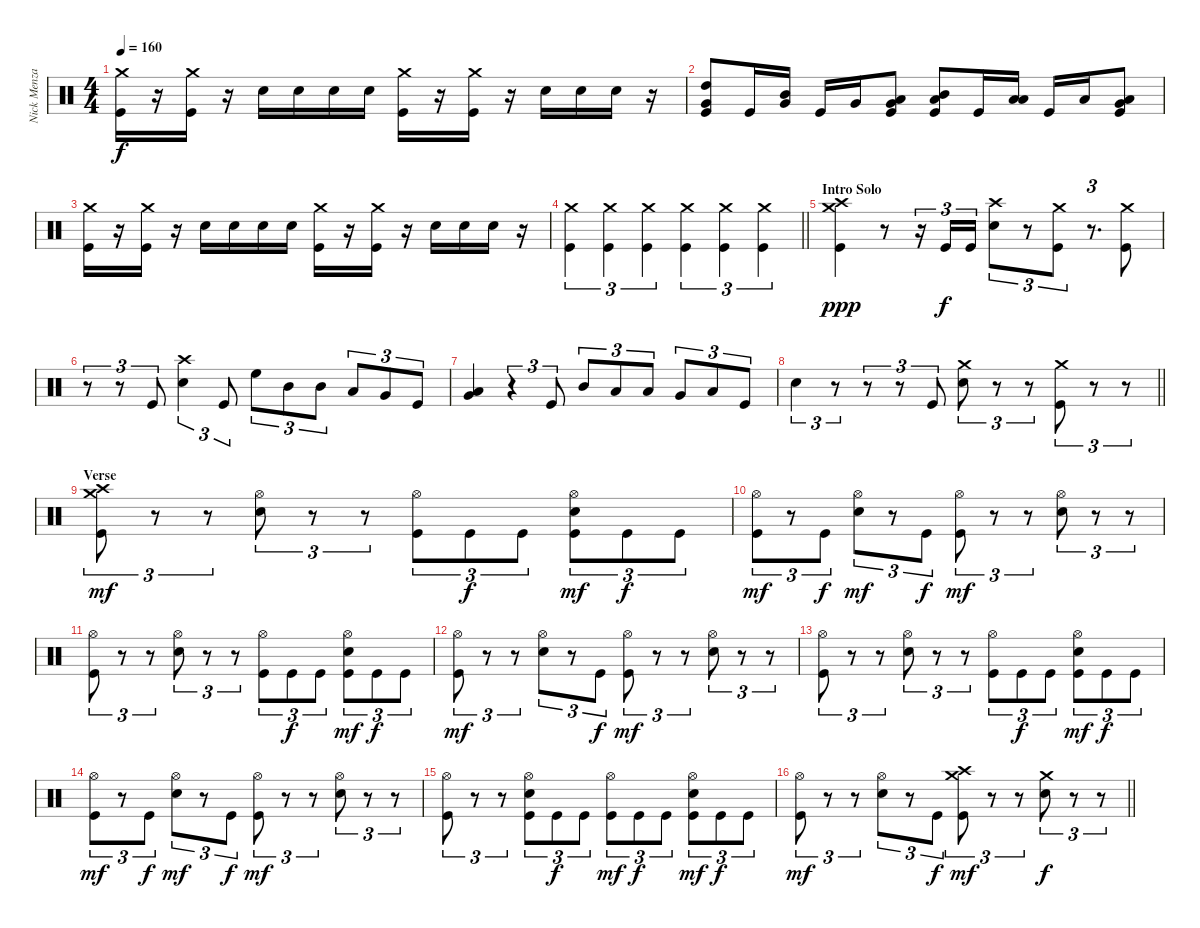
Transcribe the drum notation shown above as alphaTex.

\track ("Nick Menza" "Nick Menza") {instrument percussion}
\staff {score}
\articulation defaults
\ts (4 4)
\tempo 160
\clef neutral
\ks c
("Crash medium (hit)" "Kick (hit)").16{dy f} r.16 ("Crash medium (hit)" "Kick (hit)").16 r.16 "Snare (hit) 2".16 "Snare (hit) 2".16 "Snare (hit) 2".16 "Snare (hit) 2".16 ("Crash medium (hit)" "Kick (hit)").16 r.16 ("Crash medium (hit)" "Kick (hit)").16 r.16 "Snare (hit) 2".16 "Snare (hit) 2".16 "Snare (hit) 2".16 r.16 |
("High Tom (hit)" "Very Low Tom (hit)" "Kick (hit)").8 "Kick (hit)".16 ("Mid Tom (hit)" "Very Low Tom (hit)").16 "Kick (hit)".16 "Very Low Tom (hit)".16 ("Low Tom (hit)" "Very Low Tom (hit)" "Kick (hit)").8 ("Mid Tom (hit)" "Low Floor Tom (hit)" "Kick (hit)").8 "Kick (hit)".16 ("Low Tom (hit)" "Low Floor Tom (hit)").16 "Kick (hit)".16 "Low Floor Tom (hit)".16 ("Very Low Tom (hit)" "Low Floor Tom (hit)" "Kick (hit)").8 |
("Crash medium (hit)" "Kick (hit)").16 r.16 ("Crash medium (hit)" "Kick (hit)").16 r.16 "Snare (hit) 2".16 "Snare (hit) 2".16 "Snare (hit) 2".16 "Snare (hit) 2".16 ("Crash medium (hit)" "Kick (hit)").16 r.16 ("Crash medium (hit)" "Kick (hit)").16 r.16 "Snare (hit) 2".16 "Snare (hit) 2".16 "Snare (hit) 2".16 r.16 |
\barLineRight lightlight
("Crash medium (hit)" "Kick (hit)").4{tu (3 2)} ("Crash medium (hit)" "Kick (hit)").4{tu (3 2)} ("Crash medium (hit)" "Kick (hit)").4{tu (3 2)} ("Crash medium (hit)" "Kick (hit)").4{tu (3 2)} ("Crash medium (hit)" "Kick (hit)").4{tu (3 2)} ("Crash medium (hit)" "Kick (hit)").4{tu (3 2)} |
\section ("" "Intro Solo")
("Crash high (hit)" "Crash medium (hit)" "Kick (hit)").4{dy ppp} r.8 r.16{tu (3 2)} "Kick (hit)".16{tu (3 2) dy f} "Kick (hit)".16{tu (3 2)} ("Crash high (hit)" "Snare (hit) 2").8{tu (3 2)} r.8{tu (3 2)} ("Crash medium (hit)" "Kick (hit)").8{tu (3 2)} r.8{d tu (3 2)} ("Crash medium (hit)" "Kick (hit)").8 |
r.8{tu (3 2)} r.8{tu (3 2)} "Kick (hit)".8{tu (3 2)} ("Crash high (hit)" "Snare (hit) 2").4{tu (3 2)} "Kick (hit)".8{tu (3 2)} "High Floor Tom (hit)".8{tu (3 2)} "Mid Tom (hit)".8{tu (3 2)} "Mid Tom (hit)".8{tu (3 2)} "Low Tom (hit)".8{tu (3 2)} "Very Low Tom (hit)".8{tu (3 2)} "Kick (hit)".8{tu (3 2)} |
("Very Low Tom (hit)" "Low Floor Tom (hit)").4 r.4{tu (3 2)} "Kick (hit)".8{tu (3 2)} "Mid Tom (hit)".8{tu (3 2)} "Low Tom (hit)".8{tu (3 2)} "Low Tom (hit)".8{tu (3 2)} "Very Low Tom (hit)".8{tu (3 2)} "Low Floor Tom (hit)".8{tu (3 2)} "Kick (hit)".8{tu (3 2)} |
\barLineRight lightlight "Snare (hit) 2".4{tu (3 2)}
r.8{tu (3 2)} r.8{tu (3 2)} r.8{tu (3 2)} "Kick (hit)".8{tu (3 2)} ("Crash medium (hit)" "Snare (hit) 2").8{tu (3 2)} r.8{tu (3 2)} r.8{tu (3 2)} ("Crash medium (hit)" "Kick (hit)").8{tu (3 2)} r.8{tu (3 2)} r.8{tu (3 2)} |
\section ("" "Verse")
("Crash medium (hit)" "Crash high (hit)" "Kick (hit)").8{tu (3 2) dy mf} r.8{tu (3 2)} r.8{tu (3 2)} ("Hi-Hat (open)" "Snare (hit) 2").8{tu (3 2)} r.8{tu (3 2)} r.8{tu (3 2)} ("Hi-Hat (open)" "Kick (hit)").8{tu (3 2)} "Kick (hit)".8{tu (3 2) dy f} "Kick (hit)".8{tu (3 2)} ("Hi-Hat (open)" "Snare (hit) 2" "Kick (hit)").8{tu (3 2) dy mf} "Kick (hit)".8{tu (3 2) dy f} "Kick (hit)".8{tu (3 2)} |
("Hi-Hat (open)" "Kick (hit)").8{tu (3 2) dy mf} r.8{tu (3 2)} "Kick (hit)".8{tu (3 2) dy f} ("Hi-Hat (open)" "Snare (hit) 2").8{tu (3 2) dy mf} r.8{tu (3 2)} "Kick (hit)".8{tu (3 2) dy f} ("Hi-Hat (open)" "Kick (hit)").8{tu (3 2) dy mf} r.8{tu (3 2)} r.8{tu (3 2)} ("Hi-Hat (open)" "Snare (hit) 2").8{tu (3 2)} r.8{tu (3 2)} r.8{tu (3 2)} |
("Hi-Hat (open)" "Kick (hit)").8{tu (3 2)} r.8{tu (3 2)} r.8{tu (3 2)} ("Hi-Hat (open)" "Snare (hit) 2").8{tu (3 2)} r.8{tu (3 2)} r.8{tu (3 2)} ("Hi-Hat (open)" "Kick (hit)").8{tu (3 2)} "Kick (hit)".8{tu (3 2) dy f} "Kick (hit)".8{tu (3 2)} ("Hi-Hat (open)" "Snare (hit) 2" "Kick (hit)").8{tu (3 2) dy mf} "Kick (hit)".8{tu (3 2) dy f} "Kick (hit)".8{tu (3 2)} |
("Hi-Hat (open)" "Kick (hit)").8{tu (3 2) dy mf} r.8{tu (3 2)} r.8{tu (3 2)} ("Hi-Hat (open)" "Snare (hit) 2").8{tu (3 2)} r.8{tu (3 2)} "Kick (hit)".8{tu (3 2) dy f} ("Hi-Hat (open)" "Kick (hit)").8{tu (3 2) dy mf} r.8{tu (3 2)} r.8{tu (3 2)} ("Hi-Hat (open)" "Snare (hit) 2").8{tu (3 2)} r.8{tu (3 2)} r.8{tu (3 2)} |
("Hi-Hat (open)" "Kick (hit)").8{tu (3 2)} r.8{tu (3 2)} r.8{tu (3 2)} ("Hi-Hat (open)" "Snare (hit) 2").8{tu (3 2)} r.8{tu (3 2)} r.8{tu (3 2)} ("Hi-Hat (open)" "Kick (hit)").8{tu (3 2)} "Kick (hit)".8{tu (3 2) dy f} "Kick (hit)".8{tu (3 2)} ("Hi-Hat (open)" "Snare (hit) 2" "Kick (hit)").8{tu (3 2) dy mf} "Kick (hit)".8{tu (3 2) dy f} "Kick (hit)".8{tu (3 2)} |
("Hi-Hat (open)" "Kick (hit)").8{tu (3 2) dy mf} r.8{tu (3 2)} "Kick (hit)".8{tu (3 2) dy f} ("Hi-Hat (open)" "Snare (hit) 2").8{tu (3 2) dy mf} r.8{tu (3 2)} "Kick (hit)".8{tu (3 2) dy f} ("Hi-Hat (open)" "Kick (hit)").8{tu (3 2) dy mf} r.8{tu (3 2)} r.8{tu (3 2)} ("Hi-Hat (open)" "Snare (hit) 2").8{tu (3 2)} r.8{tu (3 2)} r.8{tu (3 2)} |
("Hi-Hat (open)" "Kick (hit)").8{tu (3 2)} r.8{tu (3 2)} r.8{tu (3 2)} ("Hi-Hat (open)" "Snare (hit) 2" "Kick (hit)").8{tu (3 2)} "Kick (hit)".8{tu (3 2) dy f} "Kick (hit)".8{tu (3 2)} ("Hi-Hat (open)" "Kick (hit)").8{tu (3 2) dy mf} "Kick (hit)".8{tu (3 2) dy f} "Kick (hit)".8{tu (3 2)} ("Hi-Hat (open)" "Snare (hit) 2" "Kick (hit)").8{tu (3 2) dy mf} "Kick (hit)".8{tu (3 2) dy f} "Kick (hit)".8{tu (3 2)} |
\barLineRight lightlight
("Hi-Hat (open)" "Kick (hit)").8{tu (3 2) dy mf} r.8{tu (3 2)} r.8{tu (3 2)} ("Hi-Hat (open)" "Snare (hit) 2").8{tu (3 2)} r.8{tu (3 2)} "Kick (hit)".8{tu (3 2) dy f} ("Crash medium (hit)" "Crash high (hit)" "Kick (hit)").8{tu (3 2) dy mf} r.8{tu (3 2)} r.8{tu (3 2)} ("Crash medium (hit)" "Snare (hit) 2").8{tu (3 2) dy f} r.8{tu (3 2)} r.8{tu (3 2)}
